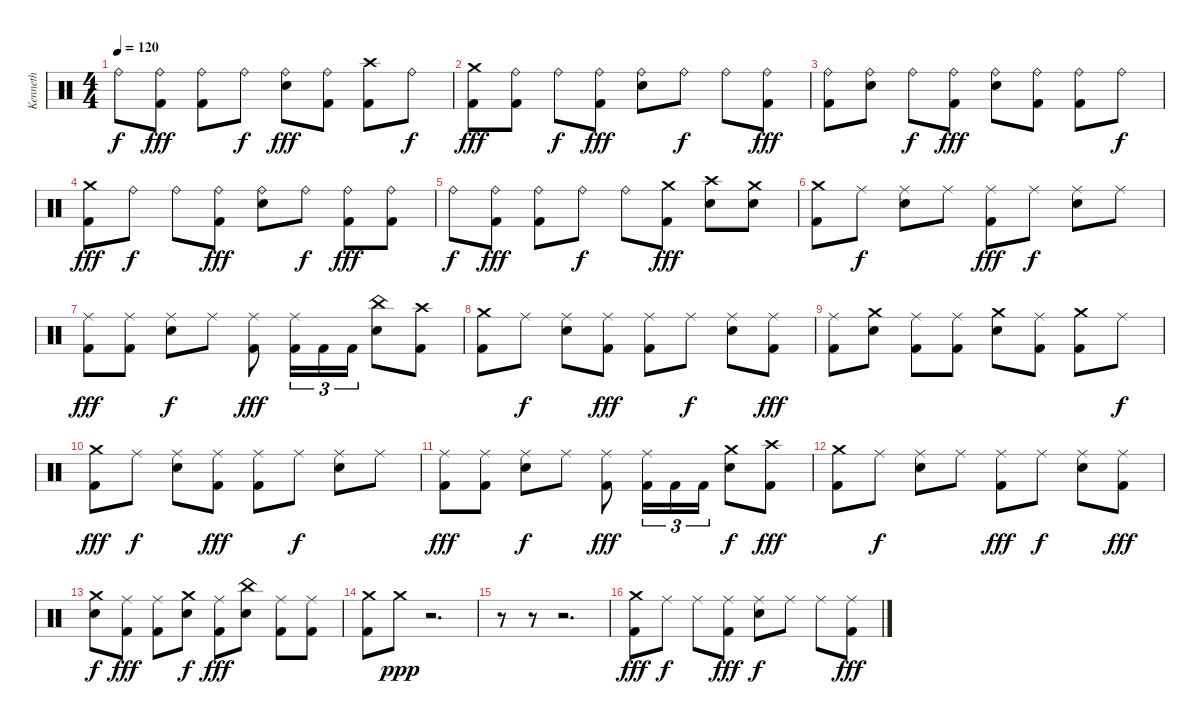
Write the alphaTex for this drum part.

\track ("Kenneth" "Kenneth") {instrument percussion}
\staff {score}
\articulation defaults
\ts (4 4)
\tempo 120
\clef neutral
\ks c "Ride (bell)".8{dy f}
("Ride (bell)" "Kick (hit) 2").8{dy fff} ("Ride (bell)" "Kick (hit) 2").8 "Ride (bell)".8{dy f} ("Ride (bell)" "Snare (hit) 2").8{dy fff} ("Ride (bell)" "Kick (hit) 2").8 ("Crash high (hit)" "Kick (hit) 2").8 "Ride (bell)".8{dy f} |
("Crash medium (hit)" "Kick (hit) 2").8{dy fff} ("Ride (bell)" "Kick (hit) 2").8 "Ride (bell)".8{dy f} ("Ride (bell)" "Kick (hit) 2").8{dy fff} ("Ride (bell)" "Snare (hit) 2").8 "Ride (bell)".8{dy f} "Ride (bell)".8 ("Ride (bell)" "Kick (hit) 2").8{dy fff} |
("Ride (bell)" "Kick (hit) 2").8 ("Ride (bell)" "Snare (hit) 2").8 "Ride (bell)".8{dy f} ("Ride (bell)" "Kick (hit) 2").8{dy fff} ("Ride (bell)" "Snare (hit) 2").8 ("Ride (bell)" "Kick (hit) 2").8 ("Ride (bell)" "Kick (hit) 2").8 "Ride (bell)".8{dy f} |
("Crash medium (hit)" "Kick (hit) 2").8{dy fff} "Ride (bell)".8{dy f} "Ride (bell)".8 ("Ride (bell)" "Kick (hit) 2").8{dy fff} ("Ride (bell)" "Snare (hit) 2").8 "Ride (bell)".8{dy f} ("Ride (bell)" "Kick (hit) 2").8{dy fff} ("Ride (bell)" "Kick (hit) 2").8 |
"Ride (bell)".8{dy f} ("Ride (bell)" "Kick (hit) 2").8{dy fff} ("Ride (bell)" "Kick (hit) 2").8 "Ride (bell)".8{dy f} "Ride (bell)".8 ("Crash medium (hit)" "Kick (hit) 2").8{dy fff} ("Crash high (hit)" "Snare (hit) 2").8 ("Crash medium (hit)" "Snare (hit) 2").8 |
("Crash medium (hit)" "Kick (hit) 2").8 "Ride (middle)".8{dy f} ("Ride (middle)" "Snare (hit) 2").8 "Ride (middle)".8 ("Ride (middle)" "Kick (hit) 2").8{dy fff} "Ride (middle)".8{dy f} ("Ride (middle)" "Snare (hit) 2").8 "Ride (middle)".8 |
("Ride (middle)" "Kick (hit) 2").8{dy fff} ("Ride (middle)" "Kick (hit) 2").8 ("Ride (middle)" "Snare (hit) 2").8{dy f} "Ride (middle)".8 ("Ride (middle)" "Kick (hit) 2").8{dy fff} ("Ride (middle)" "Kick (hit) 2").16{tu (3 2)} "Kick (hit) 2".16{tu (3 2)} "Kick (hit) 2".16{tu (3 2)} ("China (hit)" "Snare (hit) 2").8 ("Crash high (hit)" "Kick (hit) 2").8 |
("Crash medium (hit)" "Kick (hit) 2").8 "Ride (middle)".8{dy f} ("Ride (middle)" "Snare (hit) 2").8 ("Ride (middle)" "Kick (hit) 2").8{dy fff} ("Ride (middle)" "Kick (hit) 2").8 "Ride (middle)".8{dy f} ("Ride (middle)" "Snare (hit) 2").8 ("Ride (middle)" "Kick (hit) 2").8{dy fff} |
("Ride (middle)" "Kick (hit) 2").8 ("Crash medium (hit)" "Snare (hit) 2").8 ("Ride (middle)" "Kick (hit) 2").8 ("Ride (middle)" "Kick (hit) 2").8 ("Crash medium (hit)" "Snare (hit) 2").8 ("Ride (middle)" "Kick (hit) 2").8 ("Crash medium (hit)" "Kick (hit) 2").8 "Ride (middle)".8{dy f} |
("Crash medium (hit)" "Kick (hit) 2").8{dy fff} "Ride (middle)".8{dy f} ("Ride (middle)" "Snare (hit) 2").8 ("Ride (middle)" "Kick (hit) 2").8{dy fff} ("Ride (middle)" "Kick (hit) 2").8 "Ride (middle)".8{dy f} ("Ride (middle)" "Snare (hit) 2").8 "Ride (middle)".8 |
("Ride (middle)" "Kick (hit) 2").8{dy fff} ("Ride (middle)" "Kick (hit) 2").8 ("Ride (middle)" "Snare (hit) 2").8{dy f} "Ride (middle)".8 ("Ride (middle)" "Kick (hit) 2").8{dy fff} ("Ride (middle)" "Kick (hit) 2").16{tu (3 2)} "Kick (hit) 2".16{tu (3 2)} "Kick (hit) 2".16{tu (3 2)} ("Crash medium (hit)" "Snare (hit) 2").8{dy f} ("Crash high (hit)" "Kick (hit) 2").8{dy fff} |
("Crash medium (hit)" "Kick (hit) 2").8 "Ride (middle)".8{dy f} ("Ride (middle)" "Snare (hit) 2").8 "Ride (middle)".8 ("Ride (middle)" "Kick (hit) 2").8{dy fff} "Ride (middle)".8{dy f} ("Ride (middle)" "Snare (hit) 2").8 ("Ride (middle)" "Kick (hit) 2").8{dy fff} |
("Crash medium (hit)" "Snare (hit) 2").8{dy f} ("Ride (middle)" "Kick (hit) 2").8{dy fff} ("Ride (middle)" "Kick (hit) 2").8 ("Crash medium (hit)" "Snare (hit) 2").8{dy f} ("Ride (middle)" "Kick (hit) 2").8{dy fff} ("China (hit)" "Snare (hit) 2").8 ("Ride (middle)" "Kick (hit) 2").8 ("Ride (middle)" "Kick (hit) 2").8 |
("Crash medium (hit)" "Kick (hit) 2").8 "Crash medium (hit)".8{dy ppp} r.2{d} |
r.8 r.8 r.2{d} |
("Crash medium (hit)" "Kick (hit) 2").8{dy fff} "Ride (middle)".8{dy f} "Ride (middle)".8 ("Ride (middle)" "Kick (hit) 2").8{dy fff} ("Ride (middle)" "Snare (hit) 2").8{dy f} "Ride (middle)".8 "Ride (middle)".8 ("Ride (middle)" "Kick (hit) 2").8{dy fff}
